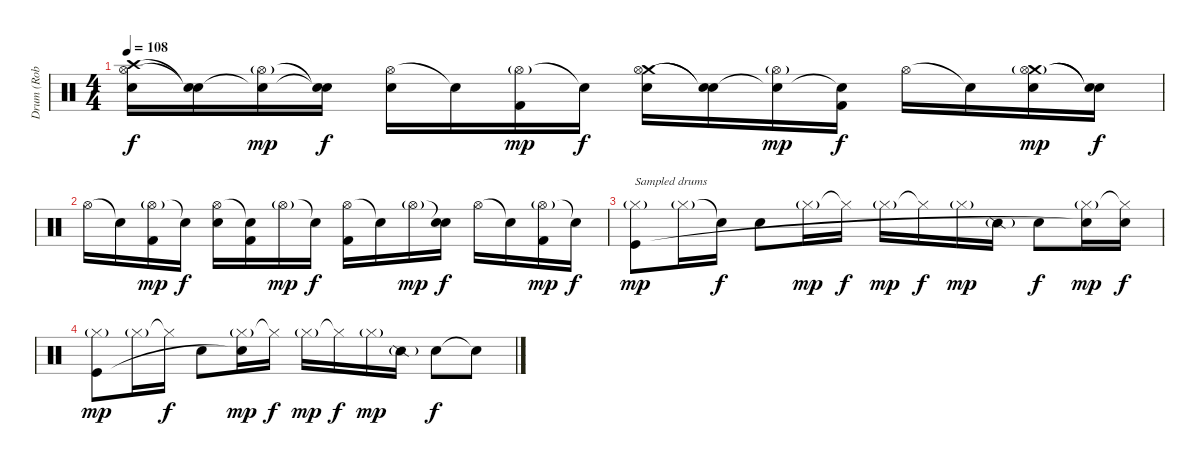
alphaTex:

\track ("Drum (Rob Bourdon)" "Drum (Rob ") {instrument percussion}
\staff {score}
\articulation defaults
\ts (4 4)
\tempo 108
\clef neutral
\ks c
("Crash high (hit)" "Hi-Hat (open)" "Electric Snare (hit)").16{dy f} ("Snare (hit)"{t} "Snare (hit)"{t}).16 ("Snare (hit)"{t} "Hi-Hat (open)"{g}).16{dy mp} ("Snare (hit)"{t} "Snare (hit)"{t}).16{dy f} ("Hi-Hat (open)" "Electric Snare (hit)").16 "Snare (hit)"{t}.16 ("Hi-Hat (open)"{g} "Kick (hit) 2").16{dy mp} "Snare (hit)"{t}.16{dy f} ("Crash medium (hit)" "Hi-Hat (open)" "Electric Snare (hit)").16 ("Snare (hit)"{t} "Snare (hit)"{t}).16 ("Snare (hit)"{t} "Hi-Hat (open)"{g}).16{dy mp} ("Snare (hit)"{t} "Kick (hit) 2").16{dy f} "Hi-Hat (open)".16 "Snare (hit)"{t}.16 ("Crash medium (hit)" "Hi-Hat (open)"{g} "Electric Snare (hit)").16{dy mp} ("Snare (hit)"{t} "Snare (hit)"{t}).16{dy f} |
"Hi-Hat (open)".16 "Snare (hit)"{t}.16 ("Hi-Hat (open)"{g} "Kick (hit) 2").16{dy mp} "Snare (hit)"{t}.16{dy f} ("Hi-Hat (open)" "Electric Snare (hit)").16 ("Snare (hit)"{t} "Kick (hit) 2").16 "Hi-Hat (open)"{g}.16{dy mp} "Snare (hit)"{t}.16{dy f} ("Hi-Hat (open)" "Kick (hit) 2").16 "Snare (hit)"{t}.16 "Hi-Hat (open)"{g}.16{dy mp} ("Snare (hit)"{t} "Electric Snare (hit)").16{dy f} "Hi-Hat (open)".16 "Snare (hit)"{t}.16 ("Hi-Hat (open)"{g} "Kick (hit) 2").16{dy mp} "Snare (hit)"{t}.16{dy f} |
("Hi-Hat (closed)"{g} "Kick (hit)").8{txt "Sampled drums" dy mp volume 14} "Hi-Hat (closed)"{g}.16 "Snare (hit)"{t}.16{dy f} "Snare (hit) 2".8 "Hi-Hat (closed)"{g}.16{dy mp} "Hi-Hat (closed)"{t}.16{dy f} "Hi-Hat (closed)"{g}.16{dy mp} "Hi-Hat (closed)"{t}.16{dy f} "Hi-Hat (closed)"{g}.16{dy mp} "Snare (side stick) 2"{g}.16 "Snare (hit) 2".8{dy f} ("Hi-Hat (closed)"{g} "Snare (hit) 2"{t}).16{dy mp} ("Hi-Hat (closed)"{t} "Snare (hit) 2").16{dy f} |
("Hi-Hat (closed)"{g} "Kick (hit)").8{dy mp} "Hi-Hat (closed)"{g}.16 "Hi-Hat (closed)"{t}.16{dy f} "Snare (hit) 2".8 ("Hi-Hat (closed)"{g} "Snare (hit)"{t}).16{dy mp} "Hi-Hat (closed)"{t}.16{dy f} "Hi-Hat (closed)"{g}.16{dy mp} "Hi-Hat (closed)"{t}.16{dy f} "Hi-Hat (closed)"{g}.16{dy mp} "Snare (side stick) 2"{g}.16 "Snare (hit) 2".8{dy f} "Snare (hit)"{t}.8
